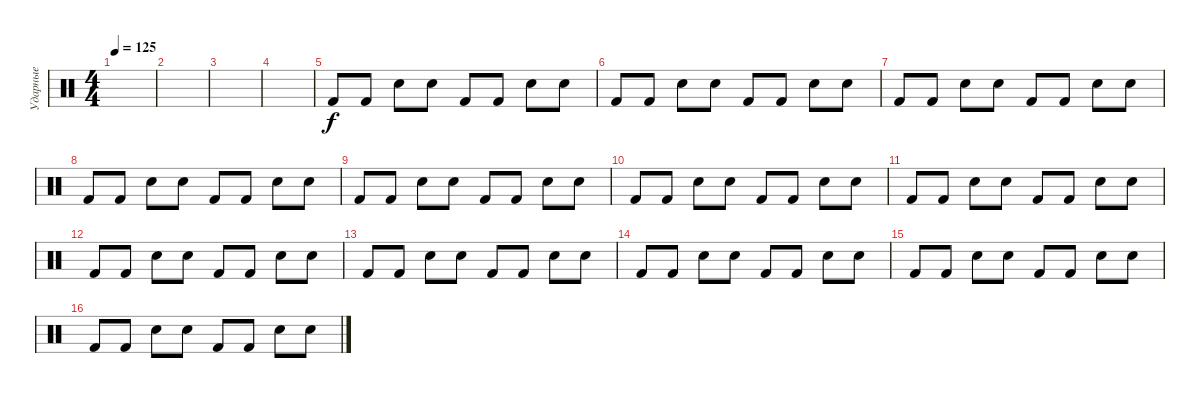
\track ("Ударные" "Ударные") {instrument percussion}
\staff {score}
\articulation defaults
\ts (4 4)
\tempo 125
\clef neutral
\ks c
|
|
|
|
"Kick (hit) 2".8 "Kick (hit) 2".8 "Electric Snare (hit)".8 "Snare (hit)".8 "Kick (hit) 2".8 "Kick (hit) 2".8 "Electric Snare (hit)".8 "Snare (hit)".8 |
"Kick (hit) 2".8 "Kick (hit) 2".8 "Electric Snare (hit)".8 "Snare (hit)".8 "Kick (hit) 2".8 "Kick (hit) 2".8 "Electric Snare (hit)".8 "Snare (hit)".8 |
"Kick (hit) 2".8 "Kick (hit) 2".8 "Electric Snare (hit)".8 "Snare (hit)".8 "Kick (hit) 2".8 "Kick (hit) 2".8 "Electric Snare (hit)".8 "Snare (hit)".8 |
"Kick (hit) 2".8 "Kick (hit) 2".8 "Electric Snare (hit)".8 "Snare (hit)".8 "Kick (hit) 2".8 "Kick (hit) 2".8 "Electric Snare (hit)".8 "Snare (hit)".8 |
"Kick (hit) 2".8 "Kick (hit) 2".8 "Electric Snare (hit)".8 "Snare (hit)".8 "Kick (hit) 2".8 "Kick (hit) 2".8 "Electric Snare (hit)".8 "Snare (hit)".8 |
"Kick (hit) 2".8 "Kick (hit) 2".8 "Electric Snare (hit)".8 "Snare (hit)".8 "Kick (hit) 2".8 "Kick (hit) 2".8 "Electric Snare (hit)".8 "Snare (hit)".8 |
"Kick (hit) 2".8 "Kick (hit) 2".8 "Electric Snare (hit)".8 "Snare (hit)".8 "Kick (hit) 2".8 "Kick (hit) 2".8 "Electric Snare (hit)".8 "Snare (hit)".8 |
"Kick (hit) 2".8 "Kick (hit) 2".8 "Electric Snare (hit)".8 "Snare (hit)".8 "Kick (hit) 2".8 "Kick (hit) 2".8 "Electric Snare (hit)".8 "Snare (hit)".8 |
"Kick (hit) 2".8 "Kick (hit) 2".8 "Electric Snare (hit)".8 "Snare (hit)".8 "Kick (hit) 2".8 "Kick (hit) 2".8 "Electric Snare (hit)".8 "Snare (hit)".8 |
"Kick (hit) 2".8 "Kick (hit) 2".8 "Electric Snare (hit)".8 "Snare (hit)".8 "Kick (hit) 2".8 "Kick (hit) 2".8 "Electric Snare (hit)".8 "Snare (hit)".8 |
"Kick (hit) 2".8 "Kick (hit) 2".8 "Electric Snare (hit)".8 "Snare (hit)".8 "Kick (hit) 2".8 "Kick (hit) 2".8 "Electric Snare (hit)".8 "Snare (hit)".8 |
"Kick (hit) 2".8 "Kick (hit) 2".8 "Electric Snare (hit)".8 "Snare (hit)".8 "Kick (hit) 2".8 "Kick (hit) 2".8 "Electric Snare (hit)".8 "Snare (hit)".8
